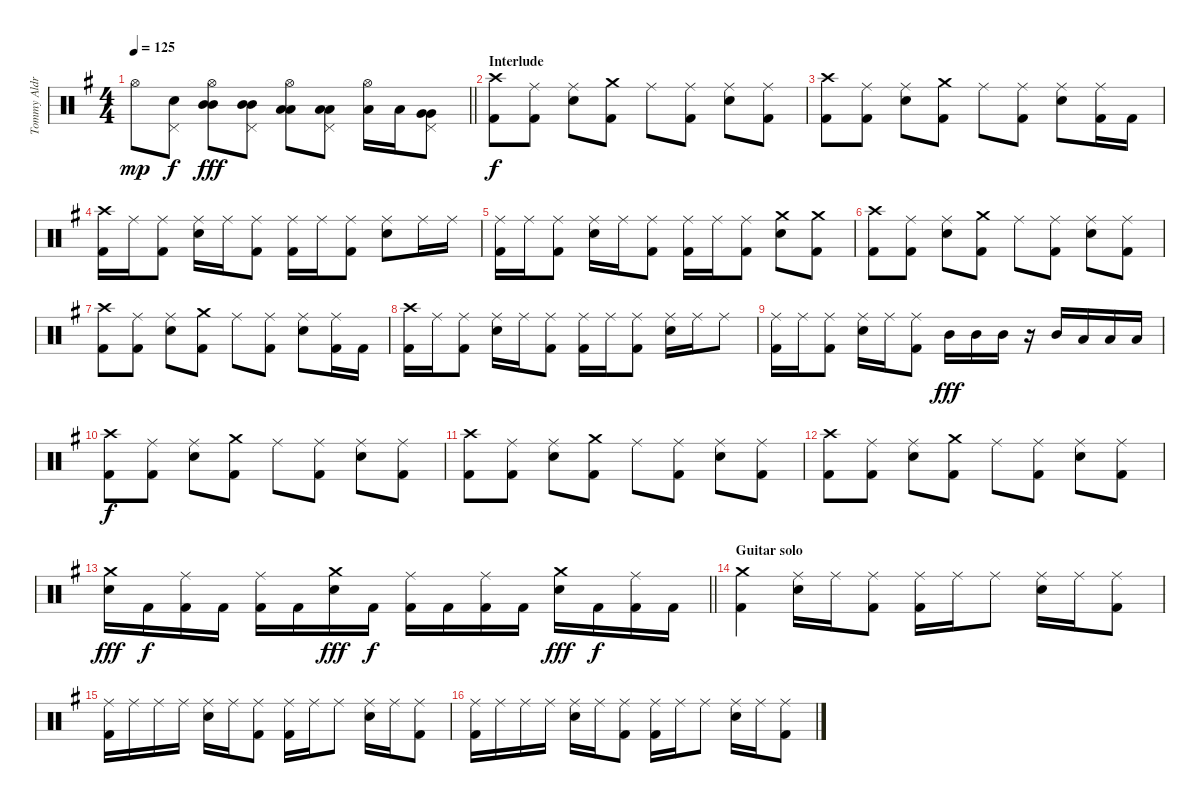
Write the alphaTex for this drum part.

\track ("Tommy Aldridge" "Tommy Aldr") {instrument percussion}
\staff {score}
\articulation defaults
\ts (4 4)
\tempo 125
\clef neutral
\barLineRight lightlight
\ks eminor "Hi-Hat (open)".8{dy mp}
("Pedal Hi-Hat (hit)" "Snare (hit) 2").8{dy f} ("Hi-Hat (open)" "Mid Tom (hit)" "Mid Tom (hit)").8{dy fff} ("Pedal Hi-Hat (hit)" "Mid Tom (hit)" "Mid Tom (hit)").8 ("Hi-Hat (open)" "Low Tom (hit)" "Low Tom (hit)").8 ("Pedal Hi-Hat (hit)" "Low Tom (hit)" "Low Tom (hit)").8 ("Hi-Hat (open)" "Low Tom (hit)").16 "Low Tom (hit)".16 ("Pedal Hi-Hat (hit)" "Very Low Tom (hit)" "Very Low Tom (hit)").8 |
\section ("" "Interlude")
("Crash high (hit)" "Kick (hit) 2").8{dy f} ("Ride (middle)" "Kick (hit) 2").8 ("Ride (middle)" "Snare (hit) 2").8 ("Crash medium (hit)" "Kick (hit) 2").8 "Ride (middle)".8 ("Ride (middle)" "Kick (hit) 2").8 ("Ride (middle)" "Snare (hit) 2").8 ("Ride (middle)" "Kick (hit) 2").8 |
("Crash high (hit)" "Kick (hit) 2").8 ("Ride (middle)" "Kick (hit) 2").8 ("Ride (middle)" "Snare (hit) 2").8 ("Crash medium (hit)" "Kick (hit) 2").8 "Ride (middle)".8 ("Ride (middle)" "Kick (hit) 2").8 ("Ride (middle)" "Snare (hit) 2").8 ("Ride (middle)" "Kick (hit) 2").16 "Kick (hit) 2".16 |
("Crash high (hit)" "Kick (hit) 2").16 "Ride (middle)".16 ("Ride (middle)" "Kick (hit) 2").8 ("Ride (middle)" "Snare (hit) 2").16 "Ride (middle)".16 ("Ride (middle)" "Kick (hit) 2").8 ("Ride (middle)" "Kick (hit) 2").16 "Ride (middle)".16 ("Ride (middle)" "Kick (hit) 2").8 ("Ride (middle)" "Snare (hit) 2").8 "Ride (middle)".16 "Ride (middle)".16 |
("Ride (middle)" "Kick (hit) 2").16 "Ride (middle)".16 ("Ride (middle)" "Kick (hit) 2").8 ("Ride (middle)" "Snare (hit) 2").16 "Ride (middle)".16 ("Ride (middle)" "Kick (hit) 2").8 ("Ride (middle)" "Kick (hit) 2").16 "Ride (middle)".16 ("Ride (middle)" "Kick (hit) 2").8 ("Crash medium (hit)" "Snare (hit) 2").8 ("Crash medium (hit)" "Kick (hit) 2").8 |
("Crash high (hit)" "Kick (hit) 2").8 ("Ride (middle)" "Kick (hit) 2").8 ("Ride (middle)" "Snare (hit) 2").8 ("Crash medium (hit)" "Kick (hit) 2").8 "Ride (middle)".8 ("Ride (middle)" "Kick (hit) 2").8 ("Ride (middle)" "Snare (hit) 2").8 ("Ride (middle)" "Kick (hit) 2").8 |
("Crash high (hit)" "Kick (hit) 2").8 ("Ride (middle)" "Kick (hit) 2").8 ("Ride (middle)" "Snare (hit) 2").8 ("Crash medium (hit)" "Kick (hit) 2").8 "Ride (middle)".8 ("Ride (middle)" "Kick (hit) 2").8 ("Ride (middle)" "Snare (hit) 2").8 ("Ride (middle)" "Kick (hit) 2").16 "Kick (hit) 2".16 |
("Crash high (hit)" "Kick (hit) 2").16 "Ride (middle)".16 ("Ride (middle)" "Kick (hit) 2").8 ("Ride (middle)" "Snare (hit) 2").16 "Ride (middle)".16 ("Ride (middle)" "Kick (hit) 2").8 ("Ride (middle)" "Kick (hit) 2").16 "Ride (middle)".16 ("Ride (middle)" "Kick (hit) 2").8 ("Ride (middle)" "Snare (hit) 2").16 "Ride (middle)".16 "Ride (middle)".8 |
("Ride (middle)" "Kick (hit) 2").16 "Ride (middle)".16 ("Ride (middle)" "Kick (hit) 2").8 ("Ride (middle)" "Snare (hit) 2").16 "Ride (middle)".16 ("Ride (middle)" "Kick (hit) 2").8 "Mid Tom (hit)".16{dy fff} "Mid Tom (hit)".16 "Mid Tom (hit)".16 r.16 "Mid Tom (hit)".16 "Low Tom (hit)".16 "Low Tom (hit)".16 "Low Tom (hit)".16 |
("Crash high (hit)" "Kick (hit) 2").8{dy f} ("Ride (middle)" "Kick (hit) 2").8 ("Ride (middle)" "Snare (hit) 2").8 ("Crash medium (hit)" "Kick (hit) 2").8 "Ride (middle)".8 ("Ride (middle)" "Kick (hit) 2").8 ("Ride (middle)" "Snare (hit) 2").8 ("Ride (middle)" "Kick (hit) 2").8 |
("Crash high (hit)" "Kick (hit) 2").8 ("Ride (middle)" "Kick (hit) 2").8 ("Ride (middle)" "Snare (hit) 2").8 ("Crash medium (hit)" "Kick (hit) 2").8 "Ride (middle)".8 ("Ride (middle)" "Kick (hit) 2").8 ("Ride (middle)" "Snare (hit) 2").8 ("Ride (middle)" "Kick (hit) 2").8 |
("Crash high (hit)" "Kick (hit) 2").8 ("Ride (middle)" "Kick (hit) 2").8 ("Ride (middle)" "Snare (hit) 2").8 ("Crash medium (hit)" "Kick (hit) 2").8 "Ride (middle)".8 ("Ride (middle)" "Kick (hit) 2").8 ("Ride (middle)" "Snare (hit) 2").8 ("Ride (middle)" "Kick (hit) 2").8 |
\barLineRight lightlight
("Crash medium (hit)" "Snare (hit) 2").16{dy fff} "Kick (hit) 2".16{dy f} ("Ride (middle)" "Kick (hit) 2").16 "Kick (hit) 2".16 ("Ride (middle)" "Kick (hit) 2").16 "Kick (hit) 2".16 ("Crash medium (hit)" "Snare (hit) 2").16{dy fff} "Kick (hit) 2".16{dy f} ("Ride (middle)" "Kick (hit) 2").16 "Kick (hit) 2".16 ("Ride (middle)" "Kick (hit) 2").16 "Kick (hit) 2".16 ("Crash medium (hit)" "Snare (hit) 2").16{dy fff} "Kick (hit) 2".16{dy f} ("Ride (middle)" "Kick (hit) 2").16 "Kick (hit) 2".16 |
\section ("" "Guitar solo")
("Crash medium (hit)" "Kick (hit) 2").4 ("Ride (middle)" "Snare (hit) 2").16 "Ride (middle)".16 ("Ride (middle)" "Kick (hit) 2").8 ("Ride (middle)" "Kick (hit) 2").16 "Ride (middle)".16 "Ride (middle)".8 ("Ride (middle)" "Snare (hit) 2").16 "Ride (middle)".16 ("Ride (middle)" "Kick (hit) 2").8 |
("Ride (middle)" "Kick (hit) 2").16 "Ride (middle)".16 "Ride (middle)".16 "Ride (middle)".16 ("Ride (middle)" "Snare (hit) 2").16 "Ride (middle)".16 ("Ride (middle)" "Kick (hit) 2").8 ("Ride (middle)" "Kick (hit) 2").16 "Ride (middle)".16 "Ride (middle)".8 ("Ride (middle)" "Snare (hit) 2").16 "Ride (middle)".16 ("Ride (middle)" "Kick (hit) 2").8 |
("Ride (middle)" "Kick (hit) 2").16 "Ride (middle)".16 "Ride (middle)".16 "Ride (middle)".16 ("Ride (middle)" "Snare (hit) 2").16 "Ride (middle)".16 ("Ride (middle)" "Kick (hit) 2").8 ("Ride (middle)" "Kick (hit) 2").16 "Ride (middle)".16 "Ride (middle)".8 ("Ride (middle)" "Snare (hit) 2").16 "Ride (middle)".16 ("Ride (middle)" "Kick (hit) 2").8
